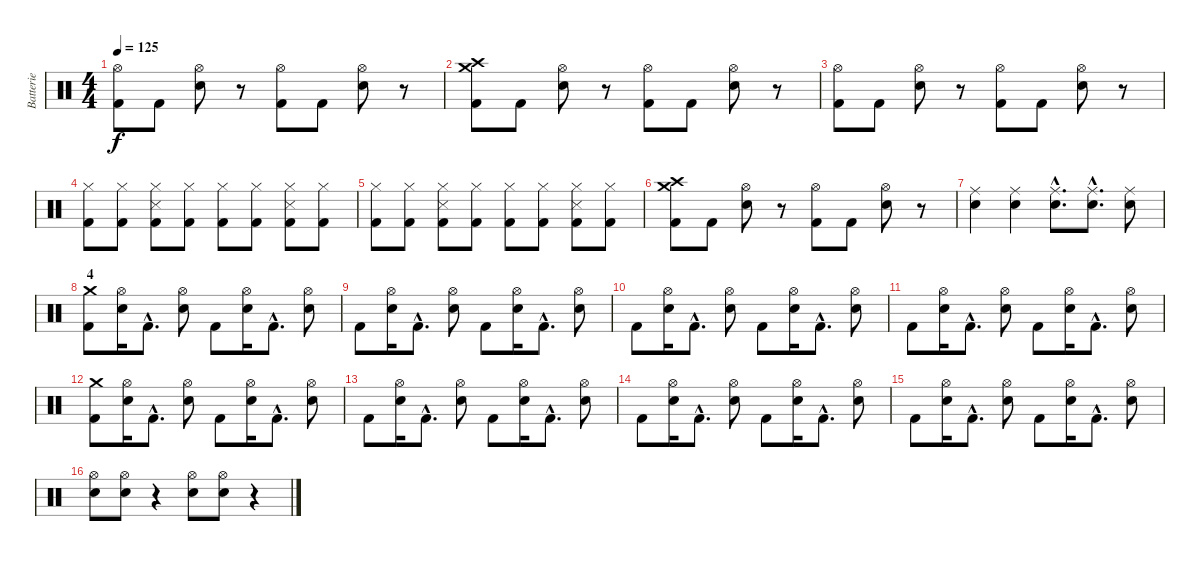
\track ("Batterie" "Batterie") {instrument percussion}
\staff {score}
\articulation defaults
\ts (4 4)
\tempo 125
\clef neutral
\ks c
("Hi-Hat (open)" "Kick (hit) 2").8{dy f} "Kick (hit) 2".8 ("Hi-Hat (open)" "Electric Snare (hit)").8 r.8 ("Hi-Hat (open)" "Kick (hit) 2").8 "Kick (hit) 2".8 ("Hi-Hat (open)" "Electric Snare (hit)").8 r.8 |
("Crash medium (hit)" "Crash high (hit)" "Kick (hit) 2").8 "Kick (hit) 2".8 ("Hi-Hat (open)" "Electric Snare (hit)").8 r.8 ("Hi-Hat (open)" "Kick (hit) 2").8 "Kick (hit) 2".8 ("Hi-Hat (open)" "Electric Snare (hit)").8 r.8 |
("Hi-Hat (open)" "Kick (hit) 2").8 "Kick (hit) 2".8 ("Hi-Hat (open)" "Electric Snare (hit)").8 r.8 ("Hi-Hat (open)" "Kick (hit) 2").8 "Kick (hit) 2".8 ("Hi-Hat (open)" "Electric Snare (hit)").8 r.8 |
("Hi-Hat (closed)" "Kick (hit) 2").8 ("Hi-Hat (closed)" "Kick (hit) 2").8 ("Hi-Hat (closed)" "Snare (side stick) 3" "Kick (hit) 2").8 ("Hi-Hat (closed)" "Kick (hit) 2").8 ("Hi-Hat (closed)" "Kick (hit) 2").8 ("Hi-Hat (closed)" "Kick (hit) 2").8 ("Hi-Hat (closed)" "Snare (side stick) 3" "Kick (hit) 2").8 ("Hi-Hat (closed)" "Kick (hit) 2").8 |
("Hi-Hat (closed)" "Kick (hit) 2").8 ("Hi-Hat (closed)" "Kick (hit) 2").8 ("Hi-Hat (closed)" "Snare (side stick) 3" "Kick (hit) 2").8 ("Hi-Hat (closed)" "Kick (hit) 2").8 ("Hi-Hat (closed)" "Kick (hit) 2").8 ("Hi-Hat (closed)" "Kick (hit) 2").8 ("Hi-Hat (closed)" "Snare (side stick) 3" "Kick (hit) 2").8 ("Hi-Hat (closed)" "Kick (hit) 2").8 |
("Crash medium (hit)" "Crash high (hit)" "Kick (hit) 2").8 "Kick (hit) 2".8 ("Hi-Hat (open)" "Electric Snare (hit)").8 r.8 ("Hi-Hat (open)" "Kick (hit) 2").8 "Kick (hit) 2".8 ("Hi-Hat (open)" "Electric Snare (hit)").8 r.8 |
("Ride (middle)" "Electric Snare (hit)").4 ("Ride (middle)" "Electric Snare (hit)").4 ("Ride (middle)"{hac} "Electric Snare (hit)"{hac}).8{d} ("Ride (middle)"{hac} "Electric Snare (hit)"{hac}).8{d} ("Ride (middle)" "Electric Snare (hit)").8 |
\section ("" " 4")
("Crash medium (hit)" "Kick (hit) 2").8 ("Hi-Hat (open)" "Electric Snare (hit)").16 "Kick (hit) 2"{hac}.8{d} ("Hi-Hat (open)" "Electric Snare (hit)").8 "Kick (hit) 2".8 ("Hi-Hat (open)" "Electric Snare (hit)").16 "Kick (hit) 2"{hac}.8{d} ("Hi-Hat (open)" "Electric Snare (hit)").8 |
"Kick (hit) 2".8 ("Hi-Hat (open)" "Electric Snare (hit)").16 "Kick (hit) 2"{hac}.8{d} ("Hi-Hat (open)" "Electric Snare (hit)").8 "Kick (hit) 2".8 ("Hi-Hat (open)" "Electric Snare (hit)").16 "Kick (hit) 2"{hac}.8{d} ("Hi-Hat (open)" "Electric Snare (hit)").8 |
"Kick (hit) 2".8 ("Hi-Hat (open)" "Electric Snare (hit)").16 "Kick (hit) 2"{hac}.8{d} ("Hi-Hat (open)" "Electric Snare (hit)").8 "Kick (hit) 2".8 ("Hi-Hat (open)" "Electric Snare (hit)").16 "Kick (hit) 2"{hac}.8{d} ("Hi-Hat (open)" "Electric Snare (hit)").8 |
"Kick (hit) 2".8 ("Hi-Hat (open)" "Electric Snare (hit)").16 "Kick (hit) 2"{hac}.8{d} ("Hi-Hat (open)" "Electric Snare (hit)").8 "Kick (hit) 2".8 ("Hi-Hat (open)" "Electric Snare (hit)").16 "Kick (hit) 2"{hac}.8{d} ("Hi-Hat (open)" "Electric Snare (hit)").8 |
("Crash medium (hit)" "Kick (hit) 2").8 ("Hi-Hat (open)" "Electric Snare (hit)").16 "Kick (hit) 2"{hac}.8{d} ("Hi-Hat (open)" "Electric Snare (hit)").8 "Kick (hit) 2".8 ("Hi-Hat (open)" "Electric Snare (hit)").16 "Kick (hit) 2"{hac}.8{d} ("Hi-Hat (open)" "Electric Snare (hit)").8 |
"Kick (hit) 2".8 ("Hi-Hat (open)" "Electric Snare (hit)").16 "Kick (hit) 2"{hac}.8{d} ("Hi-Hat (open)" "Electric Snare (hit)").8 "Kick (hit) 2".8 ("Hi-Hat (open)" "Electric Snare (hit)").16 "Kick (hit) 2"{hac}.8{d} ("Hi-Hat (open)" "Electric Snare (hit)").8 |
"Kick (hit) 2".8 ("Hi-Hat (open)" "Electric Snare (hit)").16 "Kick (hit) 2"{hac}.8{d} ("Hi-Hat (open)" "Electric Snare (hit)").8 "Kick (hit) 2".8 ("Hi-Hat (open)" "Electric Snare (hit)").16 "Kick (hit) 2"{hac}.8{d} ("Hi-Hat (open)" "Electric Snare (hit)").8 |
"Kick (hit) 2".8 ("Hi-Hat (open)" "Electric Snare (hit)").16 "Kick (hit) 2"{hac}.8{d} ("Hi-Hat (open)" "Electric Snare (hit)").8 "Kick (hit) 2".8 ("Hi-Hat (open)" "Electric Snare (hit)").16 "Kick (hit) 2"{hac}.8{d} ("Hi-Hat (open)" "Electric Snare (hit)").8 |
("Hi-Hat (open)" "Electric Snare (hit)").8 ("Hi-Hat (open)" "Electric Snare (hit)").8 r.4 ("Hi-Hat (open)" "Electric Snare (hit)").8 ("Hi-Hat (open)" "Electric Snare (hit)").8 r.4
